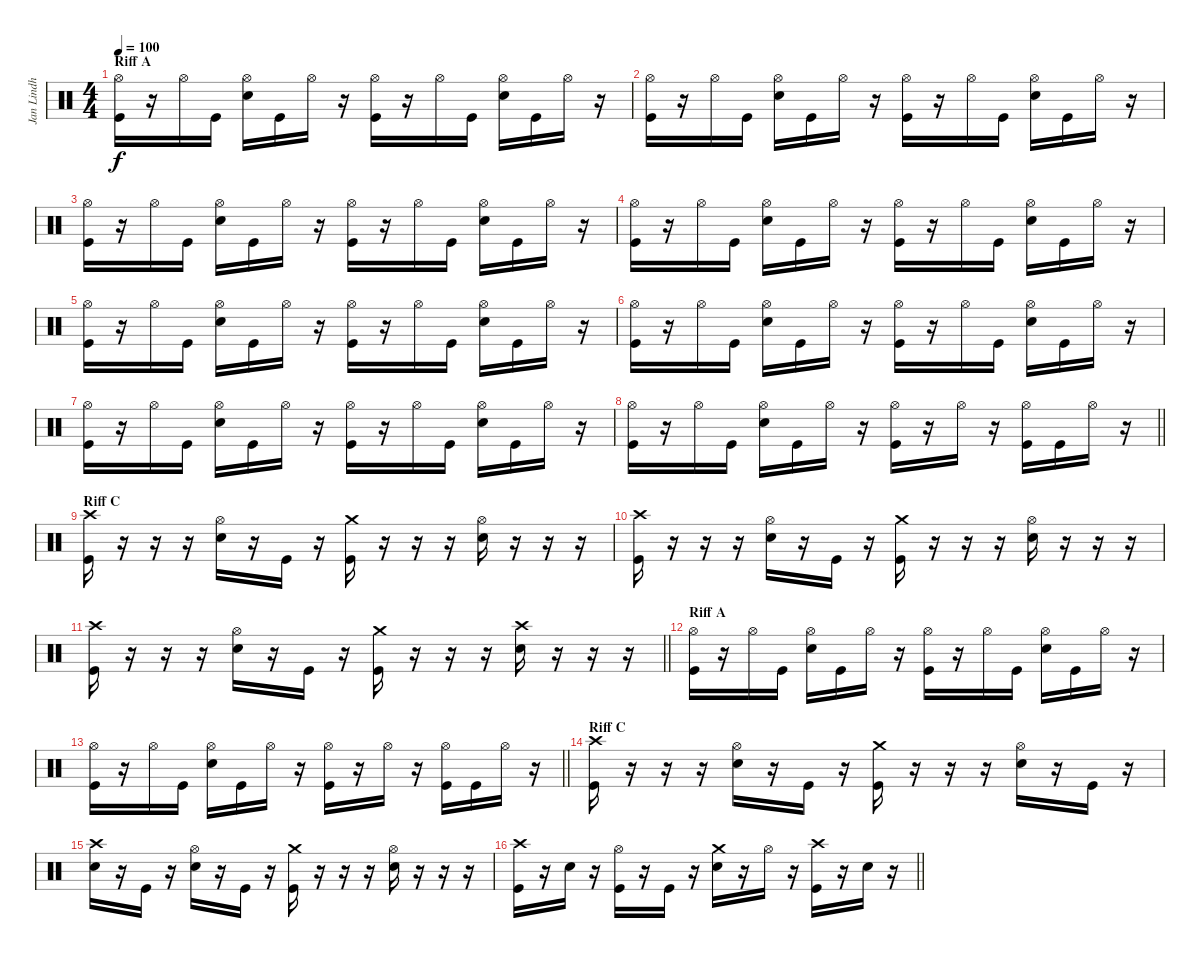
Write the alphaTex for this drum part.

\track ("Jan Lindh" "Jan Lindh") {instrument percussion}
\staff {score}
\articulation defaults
\ts (4 4)
\section ("" "Riff A")
\tempo 100
\clef neutral
\ks c
("Hi-Hat (open)" "Kick (hit)").16{dy f} r.16 "Hi-Hat (open)".16 "Kick (hit)".16 ("Hi-Hat (open)" "Snare (hit) 2").16 "Kick (hit)".16 "Hi-Hat (open)".16 r.16 ("Hi-Hat (open)" "Kick (hit)").16 r.16 "Hi-Hat (open)".16 "Kick (hit)".16 ("Hi-Hat (open)" "Snare (hit) 2").16 "Kick (hit)".16 "Hi-Hat (open)".16 r.16 |
("Hi-Hat (open)" "Kick (hit)").16 r.16 "Hi-Hat (open)".16 "Kick (hit)".16 ("Hi-Hat (open)" "Snare (hit) 2").16 "Kick (hit)".16 "Hi-Hat (open)".16 r.16 ("Hi-Hat (open)" "Kick (hit)").16 r.16 "Hi-Hat (open)".16 "Kick (hit)".16 ("Hi-Hat (open)" "Snare (hit) 2").16 "Kick (hit)".16 "Hi-Hat (open)".16 r.16 |
("Hi-Hat (open)" "Kick (hit)").16 r.16 "Hi-Hat (open)".16 "Kick (hit)".16 ("Hi-Hat (open)" "Snare (hit) 2").16 "Kick (hit)".16 "Hi-Hat (open)".16 r.16 ("Hi-Hat (open)" "Kick (hit)").16 r.16 "Hi-Hat (open)".16 "Kick (hit)".16 ("Hi-Hat (open)" "Snare (hit) 2").16 "Kick (hit)".16 "Hi-Hat (open)".16 r.16 |
("Hi-Hat (open)" "Kick (hit)").16 r.16 "Hi-Hat (open)".16 "Kick (hit)".16 ("Hi-Hat (open)" "Snare (hit) 2").16 "Kick (hit)".16 "Hi-Hat (open)".16 r.16 ("Hi-Hat (open)" "Kick (hit)").16 r.16 "Hi-Hat (open)".16 "Kick (hit)".16 ("Hi-Hat (open)" "Snare (hit) 2").16 "Kick (hit)".16 "Hi-Hat (open)".16 r.16 |
("Hi-Hat (open)" "Kick (hit)").16 r.16 "Hi-Hat (open)".16 "Kick (hit)".16 ("Hi-Hat (open)" "Snare (hit) 2").16 "Kick (hit)".16 "Hi-Hat (open)".16 r.16 ("Hi-Hat (open)" "Kick (hit)").16 r.16 "Hi-Hat (open)".16 "Kick (hit)".16 ("Hi-Hat (open)" "Snare (hit) 2").16 "Kick (hit)".16 "Hi-Hat (open)".16 r.16 |
("Hi-Hat (open)" "Kick (hit)").16 r.16 "Hi-Hat (open)".16 "Kick (hit)".16 ("Hi-Hat (open)" "Snare (hit) 2").16 "Kick (hit)".16 "Hi-Hat (open)".16 r.16 ("Hi-Hat (open)" "Kick (hit)").16 r.16 "Hi-Hat (open)".16 "Kick (hit)".16 ("Hi-Hat (open)" "Snare (hit) 2").16 "Kick (hit)".16 "Hi-Hat (open)".16 r.16 |
("Hi-Hat (open)" "Kick (hit)").16 r.16 "Hi-Hat (open)".16 "Kick (hit)".16 ("Hi-Hat (open)" "Snare (hit) 2").16 "Kick (hit)".16 "Hi-Hat (open)".16 r.16 ("Hi-Hat (open)" "Kick (hit)").16 r.16 "Hi-Hat (open)".16 "Kick (hit)".16 ("Hi-Hat (open)" "Snare (hit) 2").16 "Kick (hit)".16 "Hi-Hat (open)".16 r.16 |
\barLineRight lightlight
("Hi-Hat (open)" "Kick (hit)").16 r.16 "Hi-Hat (open)".16 "Kick (hit)".16 ("Hi-Hat (open)" "Snare (hit) 2").16 "Kick (hit)".16 "Hi-Hat (open)".16 r.16 ("Hi-Hat (open)" "Kick (hit)").16 r.16 "Hi-Hat (open)".16 r.16 ("Hi-Hat (open)" "Kick (hit)").16 "Kick (hit)".16 "Hi-Hat (open)".16 r.16 |
\section ("" "Riff C")
("Crash high (hit)" "Kick (hit)").16 r.16 r.16 r.16 ("Hi-Hat (open)" "Snare (hit) 2").16 r.16 "Kick (hit)".16 r.16 ("Crash medium (hit)" "Kick (hit)").16 r.16 r.16 r.16 ("Hi-Hat (open)" "Snare (hit) 2").16 r.16 r.16 r.16 |
("Crash high (hit)" "Kick (hit)").16 r.16 r.16 r.16 ("Hi-Hat (open)" "Snare (hit) 2").16 r.16 "Kick (hit)".16 r.16 ("Crash medium (hit)" "Kick (hit)").16 r.16 r.16 r.16 ("Hi-Hat (open)" "Snare (hit) 2").16 r.16 r.16 r.16 |
\barLineRight lightlight
("Crash high (hit)" "Kick (hit)").16 r.16 r.16 r.16 ("Hi-Hat (open)" "Snare (hit) 2").16 r.16 "Kick (hit)".16 r.16 ("Crash medium (hit)" "Kick (hit)").16 r.16 r.16 r.16 ("Crash high (hit)" "Snare (hit) 2").16 r.16 r.16 r.16 |
\section ("" "Riff A")
("Hi-Hat (open)" "Kick (hit)").16 r.16 "Hi-Hat (open)".16 "Kick (hit)".16 ("Hi-Hat (open)" "Snare (hit) 2").16 "Kick (hit)".16 "Hi-Hat (open)".16 r.16 ("Hi-Hat (open)" "Kick (hit)").16 r.16 "Hi-Hat (open)".16 "Kick (hit)".16 ("Hi-Hat (open)" "Snare (hit) 2").16 "Kick (hit)".16 "Hi-Hat (open)".16 r.16 |
\barLineRight lightlight
("Hi-Hat (open)" "Kick (hit)").16 r.16 "Hi-Hat (open)".16 "Kick (hit)".16 ("Hi-Hat (open)" "Snare (hit) 2").16 "Kick (hit)".16 "Hi-Hat (open)".16 r.16 ("Hi-Hat (open)" "Kick (hit)").16 r.16 "Hi-Hat (open)".16 r.16 ("Hi-Hat (open)" "Kick (hit)").16 "Kick (hit)".16 "Hi-Hat (open)".16 r.16 |
\section ("" "Riff C")
("Crash high (hit)" "Kick (hit)").16 r.16 r.16 r.16 ("Hi-Hat (open)" "Snare (hit) 2").16 r.16 "Kick (hit)".16 r.16 ("Crash medium (hit)" "Kick (hit)").16 r.16 r.16 r.16 ("Hi-Hat (open)" "Snare (hit) 2").16 r.16 "Kick (hit)".16 r.16 |
("Crash high (hit)" "Snare (hit) 2").16 r.16 "Kick (hit)".16 r.16 ("Hi-Hat (open)" "Snare (hit) 2").16 r.16 "Kick (hit)".16 r.16 ("Crash medium (hit)" "Kick (hit)").16 r.16 r.16 r.16 ("Hi-Hat (open)" "Snare (hit) 2").16 r.16 r.16 r.16 |
\barLineRight lightlight
("Crash high (hit)" "Kick (hit)").16 r.16 "Snare (hit) 2".16 r.16 ("Hi-Hat (open)" "Kick (hit)").16 r.16 "Kick (hit)".16 r.16 ("Crash medium (hit)" "Snare (hit) 2").16 r.16 "Hi-Hat (open)".16 r.16 ("Crash high (hit)" "Kick (hit)").16 r.16 "Snare (hit) 2".16 r.16
